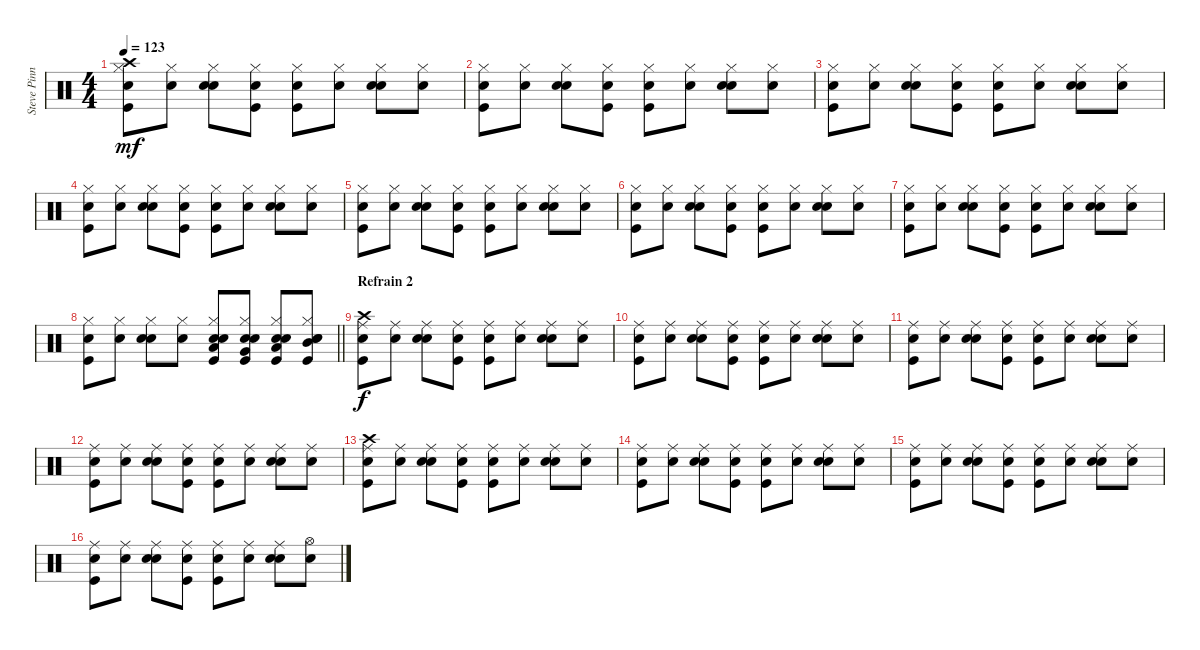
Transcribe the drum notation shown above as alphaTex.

\track ("Steve Pinnell - Drums" "Steve Pinn") {instrument percussion}
\staff {score}
\articulation defaults
\ts (4 4)
\tempo 123
\clef neutral
\ks c
("Crash high (hit)" "Kick (hit)" "Hi-Hat (closed)" "Snare (hit)").8{dy mf} ("Hi-Hat (closed)" "Snare (hit)").8 ("Metronome (bell)" "Hi-Hat (closed)" "Snare (hit)").8 ("Kick (hit)" "Hi-Hat (closed)" "Snare (hit)").8 ("Kick (hit)" "Hi-Hat (closed)" "Snare (hit)").8 ("Hi-Hat (closed)" "Snare (hit)").8 ("Metronome (bell)" "Hi-Hat (closed)" "Snare (hit)").8 ("Hi-Hat (closed)" "Snare (hit)").8 |
("Kick (hit)" "Hi-Hat (closed)" "Snare (hit)").8 ("Hi-Hat (closed)" "Snare (hit)").8 ("Metronome (bell)" "Hi-Hat (closed)" "Snare (hit)").8 ("Kick (hit)" "Hi-Hat (closed)" "Snare (hit)").8 ("Kick (hit)" "Hi-Hat (closed)" "Snare (hit)").8 ("Hi-Hat (closed)" "Snare (hit)").8 ("Metronome (bell)" "Hi-Hat (closed)" "Snare (hit)").8 ("Hi-Hat (closed)" "Snare (hit)").8 |
("Kick (hit)" "Hi-Hat (closed)" "Snare (hit)").8 ("Hi-Hat (closed)" "Snare (hit)").8 ("Metronome (bell)" "Hi-Hat (closed)" "Snare (hit)").8 ("Kick (hit)" "Hi-Hat (closed)" "Snare (hit)").8 ("Kick (hit)" "Hi-Hat (closed)" "Snare (hit)").8 ("Hi-Hat (closed)" "Snare (hit)").8 ("Metronome (bell)" "Hi-Hat (closed)" "Snare (hit)").8 ("Hi-Hat (closed)" "Snare (hit)").8 |
("Kick (hit)" "Hi-Hat (closed)" "Snare (hit)").8 ("Hi-Hat (closed)" "Snare (hit)").8 ("Metronome (bell)" "Hi-Hat (closed)" "Snare (hit)").8 ("Kick (hit)" "Hi-Hat (closed)" "Snare (hit)").8 ("Kick (hit)" "Hi-Hat (closed)" "Snare (hit)").8 ("Hi-Hat (closed)" "Snare (hit)").8 ("Metronome (bell)" "Hi-Hat (closed)" "Snare (hit)").8 ("Hi-Hat (closed)" "Snare (hit)").8 |
("Kick (hit)" "Hi-Hat (closed)" "Snare (hit)").8 ("Hi-Hat (closed)" "Snare (hit)").8 ("Metronome (bell)" "Hi-Hat (closed)" "Snare (hit)").8 ("Kick (hit)" "Hi-Hat (closed)" "Snare (hit)").8 ("Kick (hit)" "Hi-Hat (closed)" "Snare (hit)").8 ("Hi-Hat (closed)" "Snare (hit)").8 ("Metronome (bell)" "Hi-Hat (closed)" "Snare (hit)").8 ("Hi-Hat (closed)" "Snare (hit)").8 |
("Kick (hit)" "Hi-Hat (closed)" "Snare (hit)").8 ("Hi-Hat (closed)" "Snare (hit)").8 ("Metronome (bell)" "Hi-Hat (closed)" "Snare (hit)").8 ("Kick (hit)" "Hi-Hat (closed)" "Snare (hit)").8 ("Kick (hit)" "Hi-Hat (closed)" "Snare (hit)").8 ("Hi-Hat (closed)" "Snare (hit)").8 ("Metronome (bell)" "Hi-Hat (closed)" "Snare (hit)").8 ("Hi-Hat (closed)" "Snare (hit)").8 |
("Kick (hit)" "Hi-Hat (closed)" "Snare (hit)").8 ("Hi-Hat (closed)" "Snare (hit)").8 ("Metronome (bell)" "Hi-Hat (closed)" "Snare (hit)").8 ("Kick (hit)" "Hi-Hat (closed)" "Snare (hit)").8 ("Kick (hit)" "Hi-Hat (closed)" "Snare (hit)").8 ("Hi-Hat (closed)" "Snare (hit)").8 ("Metronome (bell)" "Hi-Hat (closed)" "Snare (hit)").8 ("Hi-Hat (closed)" "Snare (hit)").8 |
\barLineRight lightlight
("Kick (hit)" "Hi-Hat (closed)" "Snare (hit)").8 ("Hi-Hat (closed)" "Snare (hit)").8 ("Metronome (bell)" "Hi-Hat (closed)" "Snare (hit)").8 ("Hi-Hat (closed)" "Snare (hit)").8 ("Metronome (bell)" "Low Floor Tom (hit)" "Kick (hit)" "Hi-Hat (closed)" "Snare (hit)").8 ("Metronome (bell)" "Very Low Tom (hit)" "Kick (hit)" "Hi-Hat (closed)" "Snare (hit)").8 ("Metronome (bell)" "Low Tom (hit)" "Kick (hit)" "Hi-Hat (closed)" "Snare (hit)").8 ("Metronome (bell)" "Mid Tom (hit)" "Kick (hit)" "Hi-Hat (closed)" "Snare (hit)").8 |
\section ("" "Refrain 2")
("Crash high (hit)" "Kick (hit)" "Ride (middle)" "Snare (hit)").8{dy f volume 14 balance 8} ("Ride (middle)" "Snare (hit)").8 ("Metronome (bell)" "Ride (middle)" "Snare (hit)").8 ("Kick (hit)" "Ride (middle)" "Snare (hit)").8 ("Kick (hit)" "Ride (middle)" "Snare (hit)").8 ("Ride (middle)" "Snare (hit)").8 ("Metronome (bell)" "Ride (middle)" "Snare (hit)").8 ("Ride (middle)" "Snare (hit)").8 |
("Kick (hit)" "Ride (middle)" "Snare (hit)").8 ("Ride (middle)" "Snare (hit)").8 ("Metronome (bell)" "Ride (middle)" "Snare (hit)").8 ("Kick (hit)" "Ride (middle)" "Snare (hit)").8 ("Kick (hit)" "Ride (middle)" "Snare (hit)").8 ("Ride (middle)" "Snare (hit)").8 ("Metronome (bell)" "Ride (middle)" "Snare (hit)").8 ("Ride (middle)" "Snare (hit)").8 |
("Kick (hit)" "Ride (middle)" "Snare (hit)").8 ("Ride (middle)" "Snare (hit)").8 ("Metronome (bell)" "Ride (middle)" "Snare (hit)").8 ("Kick (hit)" "Ride (middle)" "Snare (hit)").8 ("Kick (hit)" "Ride (middle)" "Snare (hit)").8 ("Ride (middle)" "Snare (hit)").8 ("Metronome (bell)" "Ride (middle)" "Snare (hit)").8 ("Ride (middle)" "Snare (hit)").8 |
("Kick (hit)" "Ride (middle)" "Snare (hit)").8 ("Ride (middle)" "Snare (hit)").8 ("Metronome (bell)" "Ride (middle)" "Snare (hit)").8 ("Kick (hit)" "Ride (middle)" "Snare (hit)").8 ("Kick (hit)" "Ride (middle)" "Snare (hit)").8 ("Ride (middle)" "Snare (hit)").8 ("Metronome (bell)" "Ride (middle)" "Snare (hit)").8 ("Ride (middle)" "Snare (hit)").8 |
("Crash high (hit)" "Kick (hit)" "Ride (middle)" "Snare (hit)").8 ("Ride (middle)" "Snare (hit)").8 ("Metronome (bell)" "Ride (middle)" "Snare (hit)").8 ("Kick (hit)" "Ride (middle)" "Snare (hit)").8 ("Kick (hit)" "Ride (middle)" "Snare (hit)").8 ("Ride (middle)" "Snare (hit)").8 ("Metronome (bell)" "Ride (middle)" "Snare (hit)").8 ("Ride (middle)" "Snare (hit)").8 |
("Kick (hit)" "Ride (middle)" "Snare (hit)").8 ("Ride (middle)" "Snare (hit)").8 ("Metronome (bell)" "Ride (middle)" "Snare (hit)").8 ("Kick (hit)" "Ride (middle)" "Snare (hit)").8 ("Kick (hit)" "Ride (middle)" "Snare (hit)").8 ("Ride (middle)" "Snare (hit)").8 ("Metronome (bell)" "Ride (middle)" "Snare (hit)").8 ("Ride (middle)" "Snare (hit)").8 |
("Kick (hit)" "Ride (middle)" "Snare (hit)").8 ("Ride (middle)" "Snare (hit)").8 ("Metronome (bell)" "Ride (middle)" "Snare (hit)").8 ("Kick (hit)" "Ride (middle)" "Snare (hit)").8 ("Kick (hit)" "Ride (middle)" "Snare (hit)").8 ("Ride (middle)" "Snare (hit)").8 ("Metronome (bell)" "Ride (middle)" "Snare (hit)").8 ("Ride (middle)" "Snare (hit)").8 |
("Kick (hit)" "Ride (middle)" "Snare (hit)").8 ("Ride (middle)" "Snare (hit)").8 ("Metronome (bell)" "Ride (middle)" "Snare (hit)").8 ("Kick (hit)" "Ride (middle)" "Snare (hit)").8 ("Kick (hit)" "Ride (middle)" "Snare (hit)").8 ("Ride (middle)" "Snare (hit)").8 ("Metronome (bell)" "Ride (middle)" "Snare (hit)").8 ("Hi-Hat (open)" "Snare (hit)").8
